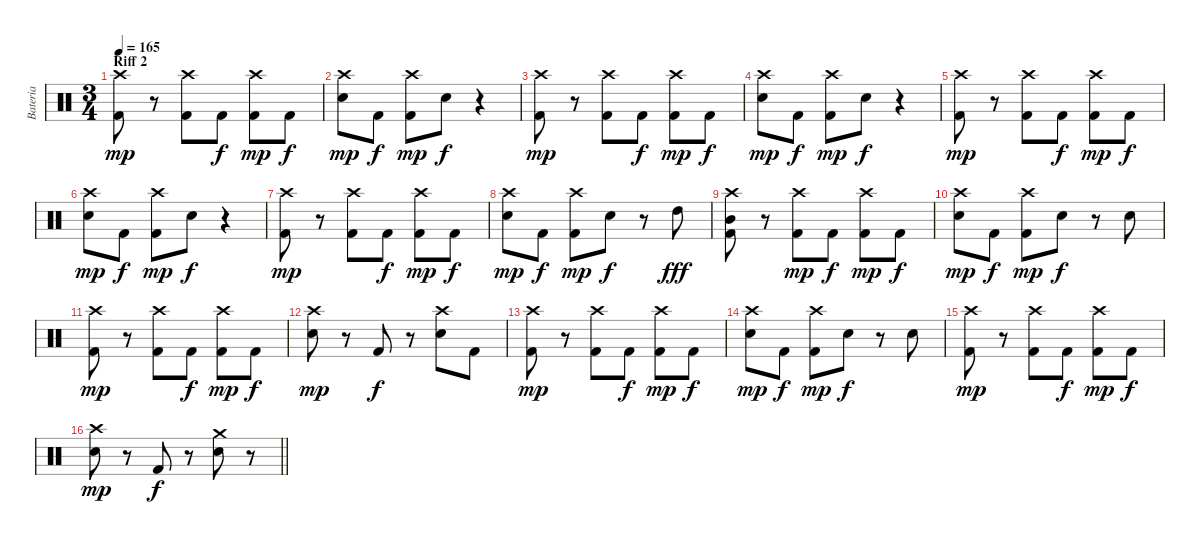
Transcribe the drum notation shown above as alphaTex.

\track ("Bateria" "Bateria") {instrument percussion}
\staff {score}
\articulation defaults
\ts (3 4)
\section ("" "Riff 2")
\tempo 165
\clef neutral
\ks c
("Crash high (hit)" "Kick (hit) 2").8{dy mp} r.8 ("Crash high (hit)" "Kick (hit) 2").8 "Kick (hit) 2".8{dy f} ("Crash high (hit)" "Kick (hit) 2").8{dy mp} "Kick (hit) 2".8{dy f} |
("Crash high (hit)" "Electric Snare (hit)").8{dy mp} "Kick (hit) 2".8{dy f} ("Crash high (hit)" "Kick (hit) 2").8{dy mp} "Electric Snare (hit)".8{dy f} r.4 |
("Crash high (hit)" "Kick (hit) 2").8{dy mp} r.8 ("Crash high (hit)" "Kick (hit) 2").8 "Kick (hit) 2".8{dy f} ("Crash high (hit)" "Kick (hit) 2").8{dy mp} "Kick (hit) 2".8{dy f} |
("Crash high (hit)" "Electric Snare (hit)").8{dy mp} "Kick (hit) 2".8{dy f} ("Crash high (hit)" "Kick (hit) 2").8{dy mp} "Electric Snare (hit)".8{dy f} r.4 |
("Crash high (hit)" "Kick (hit) 2").8{dy mp} r.8 ("Crash high (hit)" "Kick (hit) 2").8 "Kick (hit) 2".8{dy f} ("Crash high (hit)" "Kick (hit) 2").8{dy mp} "Kick (hit) 2".8{dy f} |
("Crash high (hit)" "Electric Snare (hit)").8{dy mp} "Kick (hit) 2".8{dy f} ("Crash high (hit)" "Kick (hit) 2").8{dy mp} "Electric Snare (hit)".8{dy f} r.4 |
("Crash high (hit)" "Kick (hit) 2").8{dy mp} r.8 ("Crash high (hit)" "Kick (hit) 2").8 "Kick (hit) 2".8{dy f} ("Crash high (hit)" "Kick (hit) 2").8{dy mp} "Kick (hit) 2".8{dy f} |
("Crash high (hit)" "Electric Snare (hit)").8{dy mp} "Kick (hit) 2".8{dy f} ("Crash high (hit)" "Kick (hit) 2").8{dy mp} "Electric Snare (hit)".8{dy f} r.8 "High Tom (hit)".8{dy fff} |
("Crash high (hit)" "Mid Tom (hit)" "Kick (hit) 2").8 r.8 ("Crash high (hit)" "Kick (hit) 2").8{dy mp} "Kick (hit) 2".8{dy f} ("Crash high (hit)" "Kick (hit) 2").8{dy mp} "Kick (hit) 2".8{dy f} |
("Crash high (hit)" "Electric Snare (hit)").8{dy mp} "Kick (hit) 2".8{dy f} ("Crash high (hit)" "Kick (hit) 2").8{dy mp} "Electric Snare (hit)".8{dy f} r.8 "Electric Snare (hit)".8 |
("Crash high (hit)" "Kick (hit) 2").8{dy mp} r.8 ("Crash high (hit)" "Kick (hit) 2").8 "Kick (hit) 2".8{dy f} ("Crash high (hit)" "Kick (hit) 2").8{dy mp} "Kick (hit) 2".8{dy f} |
("Crash high (hit)" "Electric Snare (hit)").8{dy mp} r.8 "Kick (hit) 2".8{dy f} r.8 ("Crash high (hit)" "Electric Snare (hit)").8 "Kick (hit) 2".8 |
("Crash high (hit)" "Kick (hit) 2").8{dy mp} r.8 ("Crash high (hit)" "Kick (hit) 2").8 "Kick (hit) 2".8{dy f} ("Crash high (hit)" "Kick (hit) 2").8{dy mp} "Kick (hit) 2".8{dy f} |
("Crash high (hit)" "Electric Snare (hit)").8{dy mp} "Kick (hit) 2".8{dy f} ("Crash high (hit)" "Kick (hit) 2").8{dy mp} "Electric Snare (hit)".8{dy f} r.8 "Electric Snare (hit)".8 |
("Crash high (hit)" "Kick (hit) 2").8{dy mp} r.8 ("Crash high (hit)" "Kick (hit) 2").8 "Kick (hit) 2".8{dy f} ("Crash high (hit)" "Kick (hit) 2").8{dy mp} "Kick (hit) 2".8{dy f} |
\barLineRight lightlight
("Crash high (hit)" "Electric Snare (hit)").8{dy mp} r.8 "Kick (hit) 2".8{dy f} r.8 ("Crash medium (hit)" "Electric Snare (hit)").8 r.8
